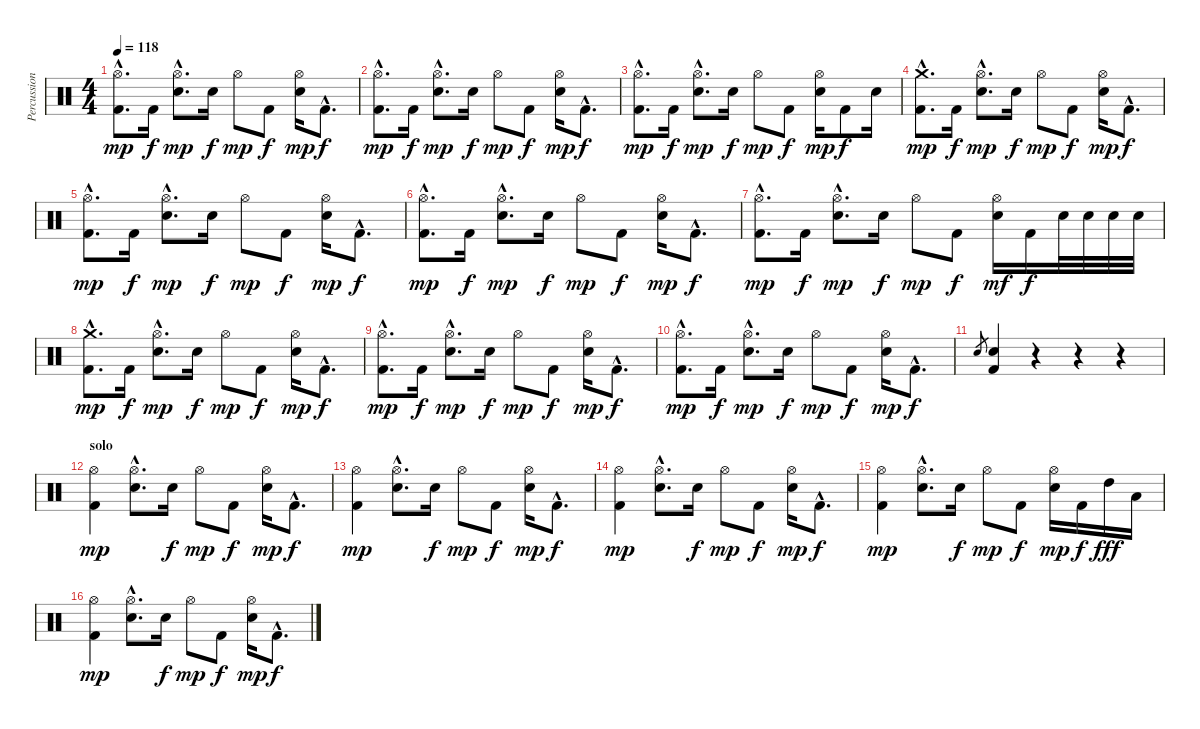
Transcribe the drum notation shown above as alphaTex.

\track ("Percussions" "Percussion") {instrument percussion}
\staff {score}
\articulation defaults
\ts (4 4)
\tempo 118
\clef neutral
\ks c
("Hi-Hat (open)"{hac} "Kick (hit) 2"{hac}).8{d dy mp} "Kick (hit) 2".16{dy f} ("Hi-Hat (open)"{hac} "Snare (hit) 2"{hac}).8{d dy mp} "Electric Snare (hit)".16{dy f} "Hi-Hat (open)".8{dy mp} "Kick (hit) 2".8{dy f} ("Hi-Hat (open)" "Snare (hit) 2").16{dy mp} "Kick (hit) 2"{hac}.8{d dy f} |
("Hi-Hat (open)"{hac} "Kick (hit) 2"{hac}).8{d dy mp} "Kick (hit) 2".16{dy f} ("Hi-Hat (open)"{hac} "Snare (hit) 2"{hac}).8{d dy mp} "Electric Snare (hit)".16{dy f} "Hi-Hat (open)".8{dy mp} "Kick (hit) 2".8{dy f} ("Hi-Hat (open)" "Snare (hit) 2").16{dy mp} "Kick (hit) 2"{hac}.8{d dy f} |
("Hi-Hat (open)"{hac} "Kick (hit) 2"{hac}).8{d dy mp} "Kick (hit) 2".16{dy f} ("Hi-Hat (open)"{hac} "Snare (hit) 2"{hac}).8{d dy mp} "Electric Snare (hit)".16{dy f} "Hi-Hat (open)".8{dy mp} "Kick (hit) 2".8{dy f} ("Hi-Hat (open)" "Snare (hit) 2").16{dy mp} "Kick (hit) 2".8{dy f} "Snare (hit) 2".16 |
("Crash medium (hit)"{hac} "Kick (hit) 2"{hac}).8{d dy mp} "Kick (hit) 2".16{dy f} ("Hi-Hat (open)"{hac} "Snare (hit) 2"{hac}).8{d dy mp} "Electric Snare (hit)".16{dy f} "Hi-Hat (open)".8{dy mp} "Kick (hit) 2".8{dy f} ("Hi-Hat (open)" "Snare (hit) 2").16{dy mp} "Kick (hit) 2"{hac}.8{d dy f} |
("Hi-Hat (open)"{hac} "Kick (hit) 2"{hac}).8{d dy mp} "Kick (hit) 2".16{dy f} ("Hi-Hat (open)"{hac} "Snare (hit) 2"{hac}).8{d dy mp} "Electric Snare (hit)".16{dy f} "Hi-Hat (open)".8{dy mp} "Kick (hit) 2".8{dy f} ("Hi-Hat (open)" "Snare (hit) 2").16{dy mp} "Kick (hit) 2"{hac}.8{d dy f} |
("Hi-Hat (open)"{hac} "Kick (hit) 2"{hac}).8{d dy mp} "Kick (hit) 2".16{dy f} ("Hi-Hat (open)"{hac} "Snare (hit) 2"{hac}).8{d dy mp} "Electric Snare (hit)".16{dy f} "Hi-Hat (open)".8{dy mp} "Kick (hit) 2".8{dy f} ("Hi-Hat (open)" "Snare (hit) 2").16{dy mp} "Kick (hit) 2"{hac}.8{d dy f} |
("Hi-Hat (open)"{hac} "Kick (hit) 2"{hac}).8{d dy mp} "Kick (hit) 2".16{dy f} ("Hi-Hat (open)"{hac} "Snare (hit) 2"{hac}).8{d dy mp} "Electric Snare (hit)".16{dy f} "Hi-Hat (open)".8{dy mp} "Kick (hit) 2".8{dy f} ("Hi-Hat (open)" "Snare (hit) 2").16{dy mf} "Kick (hit) 2".16{dy f} "Snare (hit) 2".32 "Snare (hit) 2".32 "Snare (hit) 2".32 "Snare (hit) 2".32 |
("Crash medium (hit)"{hac} "Kick (hit) 2"{hac}).8{d dy mp} "Kick (hit) 2".16{dy f} ("Hi-Hat (open)"{hac} "Snare (hit) 2"{hac}).8{d dy mp} "Electric Snare (hit)".16{dy f} "Hi-Hat (open)".8{dy mp} "Kick (hit) 2".8{dy f} ("Hi-Hat (open)" "Snare (hit) 2").16{dy mp} "Kick (hit) 2"{hac}.8{d dy f} |
("Hi-Hat (open)"{hac} "Kick (hit) 2"{hac}).8{d dy mp} "Kick (hit) 2".16{dy f} ("Hi-Hat (open)"{hac} "Snare (hit) 2"{hac}).8{d dy mp} "Electric Snare (hit)".16{dy f} "Hi-Hat (open)".8{dy mp} "Kick (hit) 2".8{dy f} ("Hi-Hat (open)" "Snare (hit) 2").16{dy mp} "Kick (hit) 2"{hac}.8{d dy f} |
("Hi-Hat (open)"{hac} "Kick (hit) 2"{hac}).8{d dy mp} "Kick (hit) 2".16{dy f} ("Hi-Hat (open)"{hac} "Snare (hit) 2"{hac}).8{d dy mp} "Electric Snare (hit)".16{dy f} "Hi-Hat (open)".8{dy mp} "Kick (hit) 2".8{dy f} ("Hi-Hat (open)" "Snare (hit) 2").16{dy mp} "Kick (hit) 2"{hac}.8{d dy f} |
"Snare (hit) 2".8{gr} ("Snare (hit) 2" "Kick (hit) 2").4 r.4 r.4 r.4 |
\section ("" "solo")
("Hi-Hat (open)" "Kick (hit) 2").4{dy mp} ("Hi-Hat (open)"{hac} "Snare (hit) 2"{hac}).8{d} "Snare (hit) 2".16{dy f} "Hi-Hat (open)".8{dy mp} "Kick (hit) 2".8{dy f} ("Hi-Hat (open)" "Snare (hit) 2").16{dy mp} "Kick (hit) 2"{hac}.8{d dy f} |
("Hi-Hat (open)" "Kick (hit) 2").4{dy mp} ("Hi-Hat (open)"{hac} "Snare (hit) 2"{hac}).8{d} "Snare (hit) 2".16{dy f} "Hi-Hat (open)".8{dy mp} "Kick (hit) 2".8{dy f} ("Hi-Hat (open)" "Snare (hit) 2").16{dy mp} "Kick (hit) 2"{hac}.8{d dy f} |
("Hi-Hat (open)" "Kick (hit) 2").4{dy mp} ("Hi-Hat (open)"{hac} "Snare (hit) 2"{hac}).8{d} "Snare (hit) 2".16{dy f} "Hi-Hat (open)".8{dy mp} "Kick (hit) 2".8{dy f} ("Hi-Hat (open)" "Snare (hit) 2").16{dy mp} "Kick (hit) 2"{hac}.8{d dy f} |
("Hi-Hat (open)" "Kick (hit) 2").4{dy mp} ("Hi-Hat (open)"{hac} "Snare (hit) 2"{hac}).8{d} "Snare (hit) 2".16{dy f} "Hi-Hat (open)".8{dy mp} "Kick (hit) 2".8{dy f} ("Hi-Hat (open)" "Snare (hit) 2").16{dy mp} "Kick (hit) 2".16{dy f} "High Tom (hit)".16{dy fff} "Low Tom (hit)".16 |
("Hi-Hat (open)" "Kick (hit) 2").4{dy mp} ("Hi-Hat (open)"{hac} "Snare (hit) 2"{hac}).8{d} "Snare (hit) 2".16{dy f} "Hi-Hat (open)".8{dy mp} "Kick (hit) 2".8{dy f} ("Hi-Hat (open)" "Snare (hit) 2").16{dy mp} "Kick (hit) 2"{hac}.8{d dy f}
